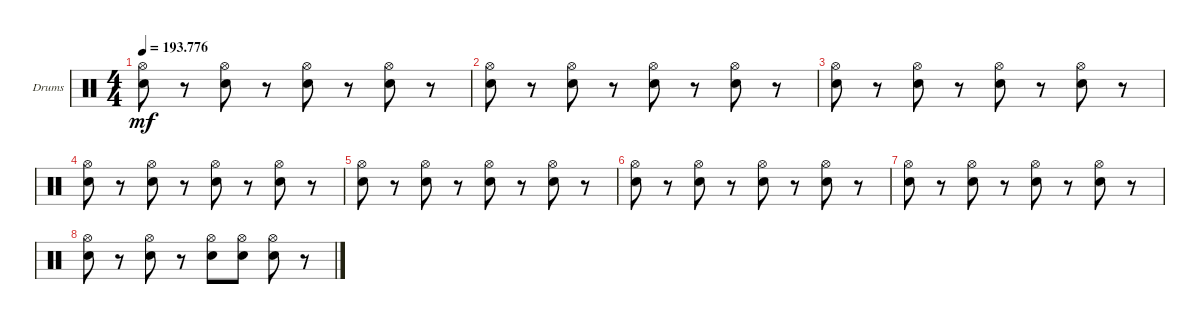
\defaultSystemsLayout 4
\bracketExtendMode groupsimilarinstruments
\firstSystemTrackNameOrientation horizontal
\otherSystemsTrackNameOrientation horizontal
\track ("Drumkit" "Drums") {instrument percussion}
\staff {score}
\articulation defaults
\ts (4 4)
\tempo
193.776
\accidentals auto
\clef neutral
\ottava regular
\simile none
\ks c
("Snare (hit) 2" "Hi-Hat (open)").8{dy mf} r.8 ("Snare (hit) 2" "Hi-Hat (open)").8 r.8 ("Snare (hit) 2" "Hi-Hat (open)").8 r.8 ("Snare (hit) 2" "Hi-Hat (open)").8 r.8 |
("Snare (hit) 2" "Hi-Hat (open)").8 r.8 ("Snare (hit) 2" "Hi-Hat (open)").8 r.8 ("Snare (hit) 2" "Hi-Hat (open)").8 r.8 ("Snare (hit) 2" "Hi-Hat (open)").8 r.8 |
("Snare (hit) 2" "Hi-Hat (open)").8 r.8 ("Snare (hit) 2" "Hi-Hat (open)").8 r.8 ("Snare (hit) 2" "Hi-Hat (open)").8 r.8 ("Snare (hit) 2" "Hi-Hat (open)").8 r.8 |
("Snare (hit) 2" "Hi-Hat (open)").8 r.8 ("Snare (hit) 2" "Hi-Hat (open)").8 r.8 ("Snare (hit) 2" "Hi-Hat (open)").8 r.8 ("Snare (hit) 2" "Hi-Hat (open)").8 r.8 |
("Snare (hit) 2" "Hi-Hat (open)").8 r.8 ("Snare (hit) 2" "Hi-Hat (open)").8 r.8 ("Snare (hit) 2" "Hi-Hat (open)").8 r.8 ("Snare (hit) 2" "Hi-Hat (open)").8 r.8 |
("Snare (hit) 2" "Hi-Hat (open)").8 r.8 ("Snare (hit) 2" "Hi-Hat (open)").8 r.8 ("Snare (hit) 2" "Hi-Hat (open)").8 r.8 ("Snare (hit) 2" "Hi-Hat (open)").8 r.8 |
("Snare (hit) 2" "Hi-Hat (open)").8 r.8 ("Snare (hit) 2" "Hi-Hat (open)").8 r.8 ("Snare (hit) 2" "Hi-Hat (open)").8 r.8 ("Snare (hit) 2" "Hi-Hat (open)").8 r.8 |
("Snare (hit) 2" "Hi-Hat (open)").8 r.8 ("Snare (hit) 2" "Hi-Hat (open)").8 r.8 ("Snare (hit) 2" "Hi-Hat (open)").8 ("Snare (hit) 2" "Hi-Hat (open)").8 ("Snare (hit) 2" "Hi-Hat (open)").8 r.8
